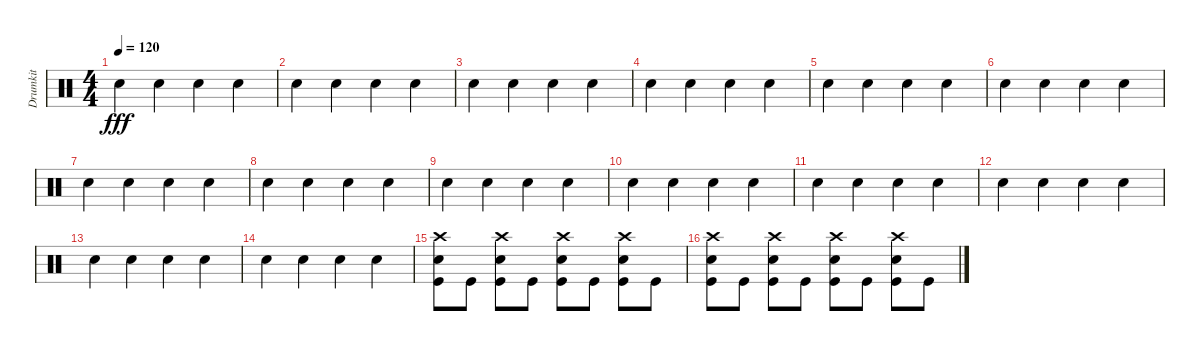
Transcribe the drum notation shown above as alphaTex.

\track ("Drumkit" "Drumkit") {instrument percussion}
\staff {score}
\articulation defaults
\ts (4 4)
\tempo 120
\clef neutral
\ks c "Snare (hit) 2".4{dy fff} "Snare (hit) 2".4 "Snare (hit) 2".4 "Snare (hit) 2".4
|
"Snare (hit) 2".4 "Snare (hit) 2".4 "Snare (hit) 2".4 "Snare (hit) 2".4 |
"Snare (hit) 2".4 "Snare (hit) 2".4 "Snare (hit) 2".4 "Snare (hit) 2".4 |
"Snare (hit) 2".4 "Snare (hit) 2".4 "Snare (hit) 2".4 "Snare (hit) 2".4 |
"Snare (hit) 2".4 "Snare (hit) 2".4 "Snare (hit) 2".4 "Snare (hit) 2".4 |
"Snare (hit) 2".4 "Snare (hit) 2".4 "Snare (hit) 2".4 "Snare (hit) 2".4 |
"Snare (hit) 2".4 "Snare (hit) 2".4 "Snare (hit) 2".4 "Snare (hit) 2".4 |
"Snare (hit) 2".4 "Snare (hit) 2".4 "Snare (hit) 2".4 "Snare (hit) 2".4 |
"Snare (hit) 2".4 "Snare (hit) 2".4 "Snare (hit) 2".4 "Snare (hit) 2".4 |
"Snare (hit) 2".4 "Snare (hit) 2".4 "Snare (hit) 2".4 "Snare (hit) 2".4 |
"Snare (hit) 2".4 "Snare (hit) 2".4 "Snare (hit) 2".4 "Snare (hit) 2".4 |
"Snare (hit) 2".4 "Snare (hit) 2".4 "Snare (hit) 2".4 "Snare (hit) 2".4 |
"Snare (hit) 2".4 "Snare (hit) 2".4 "Snare (hit) 2".4 "Snare (hit) 2".4 |
"Snare (hit) 2".4 "Snare (hit) 2".4 "Snare (hit) 2".4 "Snare (hit) 2".4 |
("Kick (hit)" "Snare (hit) 2" "Crash high (hit)").8 "Kick (hit)".8 ("Kick (hit)" "Snare (hit) 2" "Crash high (hit)").8 "Kick (hit)".8 ("Kick (hit)" "Snare (hit) 2" "Crash high (hit)").8 "Kick (hit)".8 ("Kick (hit)" "Snare (hit) 2" "Crash high (hit)").8 "Kick (hit)".8 |
("Kick (hit)" "Snare (hit) 2" "Crash high (hit)").8 "Kick (hit)".8 ("Kick (hit)" "Snare (hit) 2" "Crash high (hit)").8 "Kick (hit)".8 ("Kick (hit)" "Snare (hit) 2" "Crash high (hit)").8 "Kick (hit)".8 ("Kick (hit)" "Snare (hit) 2" "Crash high (hit)").8 "Kick (hit)".8
